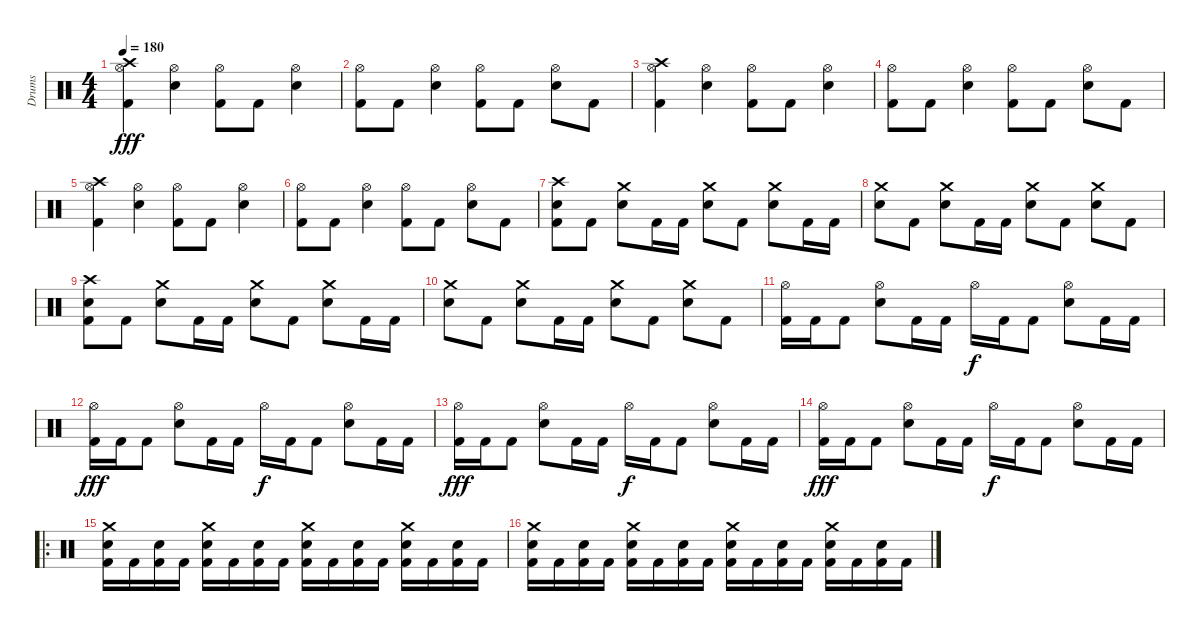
\track ("Drums" "Drums") {instrument percussion}
\staff {score}
\articulation defaults
\ts (4 4)
\tempo 180
\clef neutral
\ks c
("Crash high (hit)" "Hi-Hat (open)" "Kick (hit) 2").4{dy fff} ("Hi-Hat (open)" "Snare (hit) 2").4 ("Hi-Hat (open)" "Kick (hit) 2").8 "Kick (hit) 2".8 ("Hi-Hat (open)" "Snare (hit) 2").4 |
("Hi-Hat (open)" "Kick (hit) 2").8 "Kick (hit) 2".8 ("Hi-Hat (open)" "Snare (hit) 2").4 ("Hi-Hat (open)" "Kick (hit) 2").8 "Kick (hit) 2".8 ("Hi-Hat (open)" "Snare (hit) 2").8 "Kick (hit) 2".8 |
("Crash high (hit)" "Hi-Hat (open)" "Kick (hit) 2").4 ("Hi-Hat (open)" "Snare (hit) 2").4 ("Hi-Hat (open)" "Kick (hit) 2").8 "Kick (hit) 2".8 ("Hi-Hat (open)" "Snare (hit) 2").4 |
("Hi-Hat (open)" "Kick (hit) 2").8 "Kick (hit) 2".8 ("Hi-Hat (open)" "Snare (hit) 2").4 ("Hi-Hat (open)" "Kick (hit) 2").8 "Kick (hit) 2".8 ("Hi-Hat (open)" "Snare (hit) 2").8 "Kick (hit) 2".8 |
("Crash high (hit)" "Hi-Hat (open)" "Kick (hit) 2").4 ("Hi-Hat (open)" "Snare (hit) 2").4 ("Hi-Hat (open)" "Kick (hit) 2").8 "Kick (hit) 2".8 ("Hi-Hat (open)" "Snare (hit) 2").4 |
("Hi-Hat (open)" "Kick (hit) 2").8 "Kick (hit) 2".8 ("Hi-Hat (open)" "Snare (hit) 2").4 ("Hi-Hat (open)" "Kick (hit) 2").8 "Kick (hit) 2".8 ("Hi-Hat (open)" "Snare (hit) 2").8 "Kick (hit) 2".8 |
("Crash high (hit)" "Snare (hit) 2" "Kick (hit) 2").8 "Kick (hit) 2".8 ("Crash medium (hit)" "Snare (hit) 2").8 "Kick (hit) 2".16 "Kick (hit) 2".16 ("Crash medium (hit)" "Snare (hit) 2").8 "Kick (hit) 2".8 ("Crash medium (hit)" "Snare (hit) 2").8 "Kick (hit) 2".16 "Kick (hit) 2".16 |
("Crash medium (hit)" "Snare (hit) 2").8 "Kick (hit) 2".8 ("Crash medium (hit)" "Snare (hit) 2").8 "Kick (hit) 2".16 "Kick (hit) 2".16 ("Crash medium (hit)" "Snare (hit) 2").8 "Kick (hit) 2".8 ("Crash medium (hit)" "Snare (hit) 2").8 "Kick (hit) 2".8 |
("Crash high (hit)" "Snare (hit) 2" "Kick (hit) 2").8 "Kick (hit) 2".8 ("Crash medium (hit)" "Snare (hit) 2").8 "Kick (hit) 2".16 "Kick (hit) 2".16 ("Crash medium (hit)" "Snare (hit) 2").8 "Kick (hit) 2".8 ("Crash medium (hit)" "Snare (hit) 2").8 "Kick (hit) 2".16 "Kick (hit) 2".16 |
("Crash medium (hit)" "Snare (hit) 2").8 "Kick (hit) 2".8 ("Crash medium (hit)" "Snare (hit) 2").8 "Kick (hit) 2".16 "Kick (hit) 2".16 ("Crash medium (hit)" "Snare (hit) 2").8 "Kick (hit) 2".8 ("Crash medium (hit)" "Snare (hit) 2").8 "Kick (hit) 2".8 |
("Hi-Hat (open)" "Kick (hit) 2").16 "Kick (hit) 2".16 "Kick (hit) 2".8 ("Hi-Hat (open)" "Snare (hit) 2").8 "Kick (hit) 2".16 "Kick (hit) 2".16 "Hi-Hat (open)".16{dy f} "Kick (hit) 2".16 "Kick (hit) 2".8 ("Hi-Hat (open)" "Snare (hit) 2").8 "Kick (hit) 2".16 "Kick (hit) 2".16 |
("Hi-Hat (open)" "Kick (hit) 2").16{dy fff} "Kick (hit) 2".16 "Kick (hit) 2".8 ("Hi-Hat (open)" "Snare (hit) 2").8 "Kick (hit) 2".16 "Kick (hit) 2".16 "Hi-Hat (open)".16{dy f} "Kick (hit) 2".16 "Kick (hit) 2".8 ("Hi-Hat (open)" "Snare (hit) 2").8 "Kick (hit) 2".16 "Kick (hit) 2".16 |
("Hi-Hat (open)" "Kick (hit) 2").16{dy fff} "Kick (hit) 2".16 "Kick (hit) 2".8 ("Hi-Hat (open)" "Snare (hit) 2").8 "Kick (hit) 2".16 "Kick (hit) 2".16 "Hi-Hat (open)".16{dy f} "Kick (hit) 2".16 "Kick (hit) 2".8 ("Hi-Hat (open)" "Snare (hit) 2").8 "Kick (hit) 2".16 "Kick (hit) 2".16 |
("Hi-Hat (open)" "Kick (hit) 2").16{dy fff} "Kick (hit) 2".16 "Kick (hit) 2".8 ("Hi-Hat (open)" "Snare (hit) 2").8 "Kick (hit) 2".16 "Kick (hit) 2".16 "Hi-Hat (open)".16{dy f} "Kick (hit) 2".16 "Kick (hit) 2".8 ("Hi-Hat (open)" "Snare (hit) 2").8 "Kick (hit) 2".16 "Kick (hit) 2".16 |
\ro
("Crash medium (hit)" "Snare (hit) 2" "Kick (hit) 2").16 "Kick (hit) 2".16 ("Snare (hit) 2" "Kick (hit) 2").16 "Kick (hit) 2".16 ("Crash medium (hit)" "Snare (hit) 2" "Kick (hit) 2").16 "Kick (hit) 2".16 ("Snare (hit) 2" "Kick (hit) 2").16 "Kick (hit) 2".16 ("Crash medium (hit)" "Snare (hit) 2" "Kick (hit) 2").16 "Kick (hit) 2".16 ("Snare (hit) 2" "Kick (hit) 2").16 "Kick (hit) 2".16 ("Crash medium (hit)" "Snare (hit) 2" "Kick (hit) 2").16 "Kick (hit) 2".16 ("Snare (hit) 2" "Kick (hit) 2").16 "Kick (hit) 2".16 |
("Crash medium (hit)" "Snare (hit) 2" "Kick (hit) 2").16 "Kick (hit) 2".16 ("Snare (hit) 2" "Kick (hit) 2").16 "Kick (hit) 2".16 ("Crash medium (hit)" "Snare (hit) 2" "Kick (hit) 2").16 "Kick (hit) 2".16 ("Snare (hit) 2" "Kick (hit) 2").16 "Kick (hit) 2".16 ("Crash medium (hit)" "Snare (hit) 2" "Kick (hit) 2").16 "Kick (hit) 2".16 ("Snare (hit) 2" "Kick (hit) 2").16 "Kick (hit) 2".16 ("Crash medium (hit)" "Snare (hit) 2" "Kick (hit) 2").16 "Kick (hit) 2".16 ("Snare (hit) 2" "Kick (hit) 2").16 "Kick (hit) 2".16
